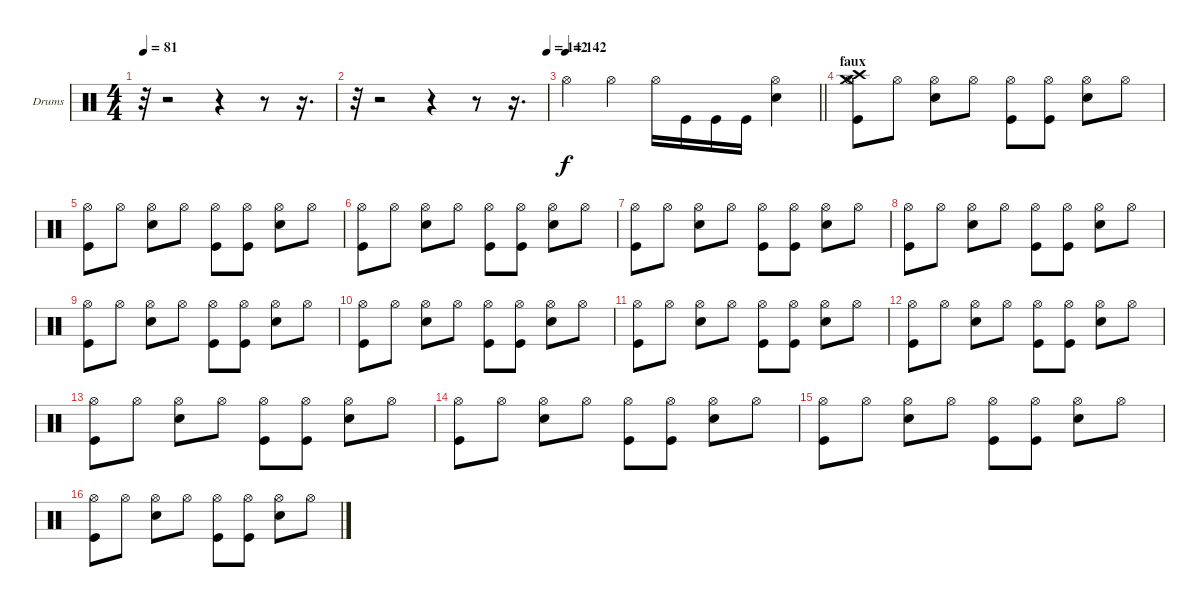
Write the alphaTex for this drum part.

\bracketExtendMode groupsimilarinstruments
\firstSystemTrackNameOrientation horizontal
\otherSystemsTrackNameOrientation horizontal
\track ("Drumkit" "Drums") {instrument percussion}
\staff {score}
\articulation defaults
\ts (4 4)
\tempo 81
\clef neutral
\ks c
r.32{dy f} r.2 r.4 r.8 r.16{d} |
\tempo (142 1)
r.32 r.2 r.4 r.8 r.16{d} |
\tempo 142
\barLineRight lightlight "Hi-Hat (open)".4 "Hi-Hat (open)".4 "Hi-Hat (open)".16 "Kick (hit)".16 "Kick (hit)".16 "Kick (hit)".16
("Hi-Hat (open)" "Snare (hit) 2").4 |
\section ("" "faux")
("Crash high (hit)" "Crash medium (hit)" "Hi-Hat (open)" "Kick (hit)").8 "Hi-Hat (open)".8 ("Hi-Hat (open)" "Snare (hit) 2").8 "Hi-Hat (open)".8 ("Hi-Hat (open)" "Kick (hit)").8 ("Hi-Hat (open)" "Kick (hit)").8 ("Hi-Hat (open)" "Snare (hit) 2").8 "Hi-Hat (open)".8 |
("Hi-Hat (open)" "Kick (hit)").8 "Hi-Hat (open)".8 ("Hi-Hat (open)" "Snare (hit) 2").8 "Hi-Hat (open)".8 ("Hi-Hat (open)" "Kick (hit)").8 ("Hi-Hat (open)" "Kick (hit)").8 ("Hi-Hat (open)" "Snare (hit) 2").8 "Hi-Hat (open)".8 |
("Hi-Hat (open)" "Kick (hit)").8 "Hi-Hat (open)".8 ("Hi-Hat (open)" "Snare (hit) 2").8 "Hi-Hat (open)".8 ("Hi-Hat (open)" "Kick (hit)").8 ("Hi-Hat (open)" "Kick (hit)").8 ("Hi-Hat (open)" "Snare (hit) 2").8 "Hi-Hat (open)".8 |
("Hi-Hat (open)" "Kick (hit)").8 "Hi-Hat (open)".8 ("Hi-Hat (open)" "Snare (hit) 2").8 "Hi-Hat (open)".8 ("Hi-Hat (open)" "Kick (hit)").8 ("Hi-Hat (open)" "Kick (hit)").8 ("Hi-Hat (open)" "Snare (hit) 2").8 "Hi-Hat (open)".8 |
("Hi-Hat (open)" "Kick (hit)").8 "Hi-Hat (open)".8 ("Hi-Hat (open)" "Snare (hit) 2").8 "Hi-Hat (open)".8 ("Hi-Hat (open)" "Kick (hit)").8 ("Hi-Hat (open)" "Kick (hit)").8 ("Hi-Hat (open)" "Snare (hit) 2").8 "Hi-Hat (open)".8 |
("Hi-Hat (open)" "Kick (hit)").8 "Hi-Hat (open)".8 ("Hi-Hat (open)" "Snare (hit) 2").8 "Hi-Hat (open)".8 ("Hi-Hat (open)" "Kick (hit)").8 ("Hi-Hat (open)" "Kick (hit)").8 ("Hi-Hat (open)" "Snare (hit) 2").8 "Hi-Hat (open)".8 |
("Hi-Hat (open)" "Kick (hit)").8 "Hi-Hat (open)".8 ("Hi-Hat (open)" "Snare (hit) 2").8 "Hi-Hat (open)".8 ("Hi-Hat (open)" "Kick (hit)").8 ("Hi-Hat (open)" "Kick (hit)").8 ("Hi-Hat (open)" "Snare (hit) 2").8 "Hi-Hat (open)".8 |
("Hi-Hat (open)" "Kick (hit)").8 "Hi-Hat (open)".8 ("Hi-Hat (open)" "Snare (hit) 2").8 "Hi-Hat (open)".8 ("Hi-Hat (open)" "Kick (hit)").8 ("Hi-Hat (open)" "Kick (hit)").8 ("Hi-Hat (open)" "Snare (hit) 2").8 "Hi-Hat (open)".8 |
("Hi-Hat (open)" "Kick (hit)").8 "Hi-Hat (open)".8 ("Hi-Hat (open)" "Snare (hit) 2").8 "Hi-Hat (open)".8 ("Hi-Hat (open)" "Kick (hit)").8 ("Hi-Hat (open)" "Kick (hit)").8 ("Hi-Hat (open)" "Snare (hit) 2").8 "Hi-Hat (open)".8 |
("Hi-Hat (open)" "Kick (hit)").8 "Hi-Hat (open)".8 ("Hi-Hat (open)" "Snare (hit) 2").8 "Hi-Hat (open)".8 ("Hi-Hat (open)" "Kick (hit)").8 ("Hi-Hat (open)" "Kick (hit)").8 ("Hi-Hat (open)" "Snare (hit) 2").8 "Hi-Hat (open)".8 |
("Hi-Hat (open)" "Kick (hit)").8 "Hi-Hat (open)".8 ("Hi-Hat (open)" "Snare (hit) 2").8 "Hi-Hat (open)".8 ("Hi-Hat (open)" "Kick (hit)").8 ("Hi-Hat (open)" "Kick (hit)").8 ("Hi-Hat (open)" "Snare (hit) 2").8 "Hi-Hat (open)".8 |
("Hi-Hat (open)" "Kick (hit)").8 "Hi-Hat (open)".8 ("Hi-Hat (open)" "Snare (hit) 2").8 "Hi-Hat (open)".8 ("Hi-Hat (open)" "Kick (hit)").8 ("Hi-Hat (open)" "Kick (hit)").8 ("Hi-Hat (open)" "Snare (hit) 2").8 "Hi-Hat (open)".8 |
("Hi-Hat (open)" "Kick (hit)").8 "Hi-Hat (open)".8 ("Hi-Hat (open)" "Snare (hit) 2").8 "Hi-Hat (open)".8 ("Hi-Hat (open)" "Kick (hit)").8 ("Hi-Hat (open)" "Kick (hit)").8 ("Hi-Hat (open)" "Snare (hit) 2").8 "Hi-Hat (open)".8
